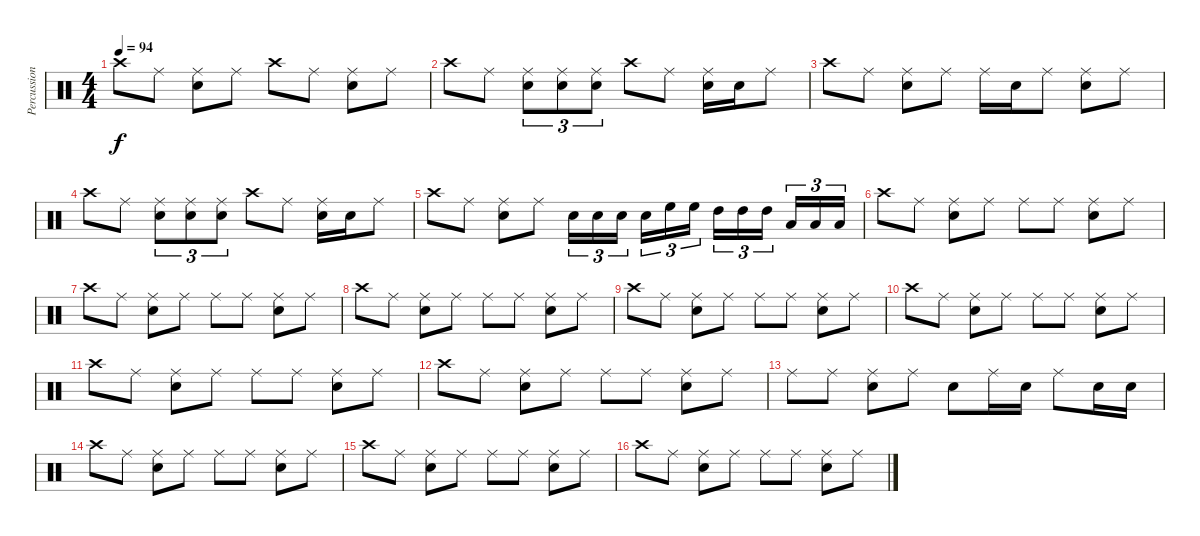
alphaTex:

\track ("Percussion" "Percussion") {instrument percussion}
\staff {score}
\articulation defaults
\ts (4 4)
\tempo 94
\clef neutral
\ks c "Crash high (hit)".8{dy f} "Ride (middle)".8
("Ride (middle)" "Snare (hit) 2").8 "Ride (middle)".8 "Crash high (hit)".8 "Ride (middle)".8 ("Ride (middle)" "Snare (hit) 2").8 "Ride (middle)".8 |
"Crash high (hit)".8 "Ride (middle)".8 ("Ride (middle)" "Snare (hit) 2").8{tu (3 2)} ("Ride (middle)" "Snare (hit) 2").8{tu (3 2)} ("Ride (middle)" "Snare (hit) 2").8{tu (3 2)} "Crash high (hit)".8 "Ride (middle)".8 ("Ride (middle)" "Snare (hit) 2").16 "Snare (hit) 2".16 "Ride (middle)".8 |
"Crash high (hit)".8 "Ride (middle)".8 ("Ride (middle)" "Snare (hit) 2").8 "Ride (middle)".8 "Ride (middle)".16 "Snare (hit) 2".16 "Ride (middle)".8 ("Ride (middle)" "Snare (hit) 2").8 "Ride (middle)".8 |
"Crash high (hit)".8 "Ride (middle)".8 ("Ride (middle)" "Snare (hit) 2").8{tu (3 2)} ("Ride (middle)" "Snare (hit) 2").8{tu (3 2)} ("Ride (middle)" "Snare (hit) 2").8{tu (3 2)} "Crash high (hit)".8 "Ride (middle)".8 ("Ride (middle)" "Snare (hit) 2").16 "Snare (hit) 2".16 "Ride (middle)".8 |
"Crash high (hit)".8 "Ride (middle)".8 ("Ride (middle)" "Snare (hit) 2").8 "Ride (middle)".8 "Snare (hit) 2".16{tu (3 2)} "Snare (hit) 2".16{tu (3 2)} "Snare (hit) 2".16{tu (3 2)} "Snare (hit) 2".16{tu (3 2)} "High Floor Tom (hit)".16{tu (3 2)} "High Floor Tom (hit)".16{tu (3 2)} "High Tom (hit)".16{tu (3 2)} "High Tom (hit)".16{tu (3 2)} "High Tom (hit)".16{tu (3 2)} "Low Tom (hit)".16{tu (3 2)} "Low Tom (hit)".16{tu (3 2)} "Low Tom (hit)".16{tu (3 2)} |
"Crash high (hit)".8 "Ride (middle)".8 ("Ride (middle)" "Snare (hit) 2").8 "Ride (middle)".8 "Ride (middle)".8 "Ride (middle)".8 ("Ride (middle)" "Snare (hit) 2").8 "Ride (middle)".8 |
"Crash high (hit)".8 "Ride (middle)".8 ("Ride (middle)" "Snare (hit) 2").8 "Ride (middle)".8 "Ride (middle)".8 "Ride (middle)".8 ("Ride (middle)" "Snare (hit) 2").8 "Ride (middle)".8 |
"Crash high (hit)".8 "Ride (middle)".8 ("Ride (middle)" "Snare (hit) 2").8 "Ride (middle)".8 "Ride (middle)".8 "Ride (middle)".8 ("Ride (middle)" "Snare (hit) 2").8 "Ride (middle)".8 |
"Crash high (hit)".8 "Ride (middle)".8 ("Ride (middle)" "Snare (hit) 2").8 "Ride (middle)".8 "Ride (middle)".8 "Ride (middle)".8 ("Ride (middle)" "Snare (hit) 2").8 "Ride (middle)".8 |
"Crash high (hit)".8 "Ride (middle)".8 ("Ride (middle)" "Snare (hit) 2").8 "Ride (middle)".8 "Ride (middle)".8 "Ride (middle)".8 ("Ride (middle)" "Snare (hit) 2").8 "Ride (middle)".8 |
"Crash high (hit)".8 "Ride (middle)".8 ("Ride (middle)" "Snare (hit) 2").8 "Ride (middle)".8 "Ride (middle)".8 "Ride (middle)".8 ("Ride (middle)" "Snare (hit) 2").8 "Ride (middle)".8 |
"Crash high (hit)".8 "Ride (middle)".8 ("Ride (middle)" "Snare (hit) 2").8 "Ride (middle)".8 "Ride (middle)".8 "Ride (middle)".8 ("Ride (middle)" "Snare (hit) 2").8 "Ride (middle)".8 |
"Ride (middle)".8 "Ride (middle)".8 ("Ride (middle)" "Snare (hit) 2").8 "Ride (middle)".8 "Snare (hit) 2".8 "Ride (middle)".16 "Snare (hit) 2".16 "Ride (middle)".8 "Snare (hit) 2".16 "Snare (hit) 2".16 |
"Crash high (hit)".8 "Ride (middle)".8 ("Ride (middle)" "Snare (hit) 2").8 "Ride (middle)".8 "Ride (middle)".8 "Ride (middle)".8 ("Ride (middle)" "Snare (hit) 2").8 "Ride (middle)".8 |
"Crash high (hit)".8 "Ride (middle)".8 ("Ride (middle)" "Snare (hit) 2").8 "Ride (middle)".8 "Ride (middle)".8 "Ride (middle)".8 ("Ride (middle)" "Snare (hit) 2").8 "Ride (middle)".8 |
"Crash high (hit)".8 "Ride (middle)".8 ("Ride (middle)" "Snare (hit) 2").8 "Ride (middle)".8 "Ride (middle)".8 "Ride (middle)".8 ("Ride (middle)" "Snare (hit) 2").8 "Ride (middle)".8
